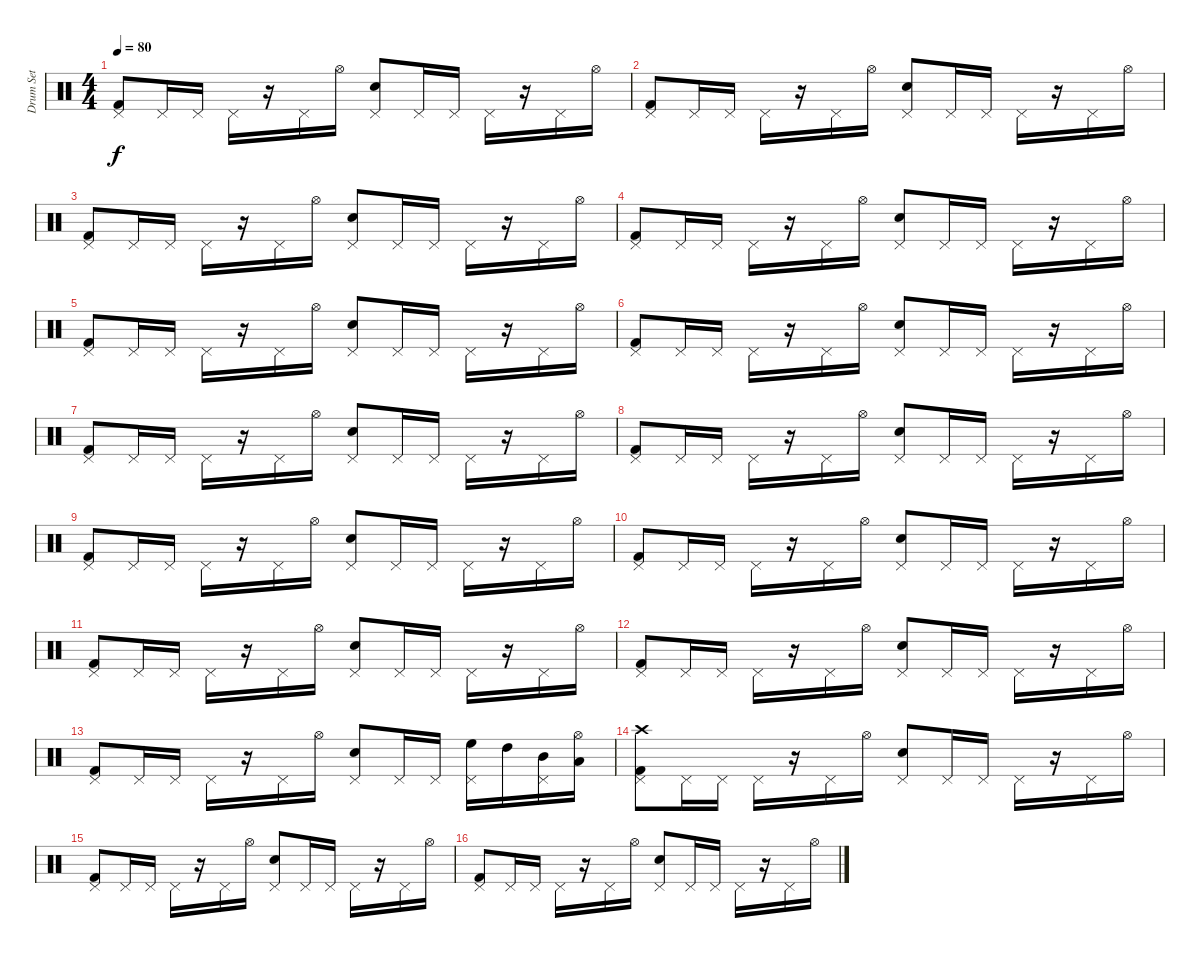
\track ("Drum Set" "Drum Set") {instrument percussion}
\staff {score}
\articulation defaults
\ts (4 4)
\tempo 80
\clef neutral
\ks c
("Kick (hit) 2" "Pedal Hi-Hat (hit)").8{dy f} "Pedal Hi-Hat (hit)".16 "Pedal Hi-Hat (hit)".16 "Pedal Hi-Hat (hit)".16 r.16 "Pedal Hi-Hat (hit)".16 "Hi-Hat (open)".16 ("Electric Snare (hit)" "Pedal Hi-Hat (hit)").8 "Pedal Hi-Hat (hit)".16 "Pedal Hi-Hat (hit)".16 "Pedal Hi-Hat (hit)".16 r.16 "Pedal Hi-Hat (hit)".16 "Hi-Hat (open)".16 |
("Pedal Hi-Hat (hit)" "Kick (hit) 2").8 "Pedal Hi-Hat (hit)".16 "Pedal Hi-Hat (hit)".16 "Pedal Hi-Hat (hit)".16 r.16 "Pedal Hi-Hat (hit)".16 "Hi-Hat (open)".16 ("Pedal Hi-Hat (hit)" "Electric Snare (hit)").8 "Pedal Hi-Hat (hit)".16 "Pedal Hi-Hat (hit)".16 "Pedal Hi-Hat (hit)".16 r.16 "Pedal Hi-Hat (hit)".16 "Hi-Hat (open)".16 |
("Kick (hit) 2" "Pedal Hi-Hat (hit)").8 "Pedal Hi-Hat (hit)".16 "Pedal Hi-Hat (hit)".16 "Pedal Hi-Hat (hit)".16 r.16 "Pedal Hi-Hat (hit)".16 "Hi-Hat (open)".16 ("Electric Snare (hit)" "Pedal Hi-Hat (hit)").8 "Pedal Hi-Hat (hit)".16 "Pedal Hi-Hat (hit)".16 "Pedal Hi-Hat (hit)".16 r.16 "Pedal Hi-Hat (hit)".16 "Hi-Hat (open)".16 |
("Pedal Hi-Hat (hit)" "Kick (hit) 2").8 "Pedal Hi-Hat (hit)".16 "Pedal Hi-Hat (hit)".16 "Pedal Hi-Hat (hit)".16 r.16 "Pedal Hi-Hat (hit)".16 "Hi-Hat (open)".16 ("Pedal Hi-Hat (hit)" "Electric Snare (hit)").8 "Pedal Hi-Hat (hit)".16 "Pedal Hi-Hat (hit)".16 "Pedal Hi-Hat (hit)".16 r.16 "Pedal Hi-Hat (hit)".16 "Hi-Hat (open)".16 |
("Kick (hit) 2" "Pedal Hi-Hat (hit)").8 "Pedal Hi-Hat (hit)".16 "Pedal Hi-Hat (hit)".16 "Pedal Hi-Hat (hit)".16 r.16 "Pedal Hi-Hat (hit)".16 "Hi-Hat (open)".16 ("Electric Snare (hit)" "Pedal Hi-Hat (hit)").8 "Pedal Hi-Hat (hit)".16 "Pedal Hi-Hat (hit)".16 "Pedal Hi-Hat (hit)".16 r.16 "Pedal Hi-Hat (hit)".16 "Hi-Hat (open)".16 |
("Pedal Hi-Hat (hit)" "Kick (hit) 2").8 "Pedal Hi-Hat (hit)".16 "Pedal Hi-Hat (hit)".16 "Pedal Hi-Hat (hit)".16 r.16 "Pedal Hi-Hat (hit)".16 "Hi-Hat (open)".16 ("Pedal Hi-Hat (hit)" "Electric Snare (hit)").8 "Pedal Hi-Hat (hit)".16 "Pedal Hi-Hat (hit)".16 "Pedal Hi-Hat (hit)".16 r.16 "Pedal Hi-Hat (hit)".16 "Hi-Hat (open)".16 |
("Kick (hit) 2" "Pedal Hi-Hat (hit)").8 "Pedal Hi-Hat (hit)".16 "Pedal Hi-Hat (hit)".16 "Pedal Hi-Hat (hit)".16 r.16 "Pedal Hi-Hat (hit)".16 "Hi-Hat (open)".16 ("Electric Snare (hit)" "Pedal Hi-Hat (hit)").8 "Pedal Hi-Hat (hit)".16 "Pedal Hi-Hat (hit)".16 "Pedal Hi-Hat (hit)".16 r.16 "Pedal Hi-Hat (hit)".16 "Hi-Hat (open)".16 |
("Pedal Hi-Hat (hit)" "Kick (hit) 2").8 "Pedal Hi-Hat (hit)".16 "Pedal Hi-Hat (hit)".16 "Pedal Hi-Hat (hit)".16 r.16 "Pedal Hi-Hat (hit)".16 "Hi-Hat (open)".16 ("Pedal Hi-Hat (hit)" "Electric Snare (hit)").8 "Pedal Hi-Hat (hit)".16 "Pedal Hi-Hat (hit)".16 "Pedal Hi-Hat (hit)".16 r.16 "Pedal Hi-Hat (hit)".16 "Hi-Hat (open)".16 |
("Kick (hit) 2" "Pedal Hi-Hat (hit)").8 "Pedal Hi-Hat (hit)".16 "Pedal Hi-Hat (hit)".16 "Pedal Hi-Hat (hit)".16 r.16 "Pedal Hi-Hat (hit)".16 "Hi-Hat (open)".16 ("Electric Snare (hit)" "Pedal Hi-Hat (hit)").8 "Pedal Hi-Hat (hit)".16 "Pedal Hi-Hat (hit)".16 "Pedal Hi-Hat (hit)".16 r.16 "Pedal Hi-Hat (hit)".16 "Hi-Hat (open)".16 |
("Pedal Hi-Hat (hit)" "Kick (hit) 2").8 "Pedal Hi-Hat (hit)".16 "Pedal Hi-Hat (hit)".16 "Pedal Hi-Hat (hit)".16 r.16 "Pedal Hi-Hat (hit)".16 "Hi-Hat (open)".16 ("Pedal Hi-Hat (hit)" "Electric Snare (hit)").8 "Pedal Hi-Hat (hit)".16 "Pedal Hi-Hat (hit)".16 "Pedal Hi-Hat (hit)".16 r.16 "Pedal Hi-Hat (hit)".16 "Hi-Hat (open)".16 |
("Pedal Hi-Hat (hit)" "Kick (hit) 2").8 "Pedal Hi-Hat (hit)".16 "Pedal Hi-Hat (hit)".16 "Pedal Hi-Hat (hit)".16 r.16 "Pedal Hi-Hat (hit)".16 "Hi-Hat (open)".16 ("Pedal Hi-Hat (hit)" "Electric Snare (hit)").8 "Pedal Hi-Hat (hit)".16 "Pedal Hi-Hat (hit)".16 "Pedal Hi-Hat (hit)".16 r.16 "Pedal Hi-Hat (hit)".16 "Hi-Hat (open)".16 |
("Kick (hit) 2" "Pedal Hi-Hat (hit)").8 "Pedal Hi-Hat (hit)".16 "Pedal Hi-Hat (hit)".16 "Pedal Hi-Hat (hit)".16 r.16 "Pedal Hi-Hat (hit)".16 "Hi-Hat (open)".16 ("Electric Snare (hit)" "Pedal Hi-Hat (hit)").8 "Pedal Hi-Hat (hit)".16 "Pedal Hi-Hat (hit)".16 "Pedal Hi-Hat (hit)".16 r.16 "Pedal Hi-Hat (hit)".16 "Hi-Hat (open)".16 |
("Pedal Hi-Hat (hit)" "Kick (hit) 2").8 "Pedal Hi-Hat (hit)".16 "Pedal Hi-Hat (hit)".16 "Pedal Hi-Hat (hit)".16 r.16 "Pedal Hi-Hat (hit)".16 "Hi-Hat (open)".16 ("Pedal Hi-Hat (hit)" "Electric Snare (hit)").8 "Pedal Hi-Hat (hit)".16 "Pedal Hi-Hat (hit)".16 ("Pedal Hi-Hat (hit)" "High Floor Tom (hit)").16 "High Tom (hit)".16 ("Pedal Hi-Hat (hit)" "Mid Tom (hit)").16 ("Hi-Hat (open)" "Low Tom (hit)").16 |
("Pedal Hi-Hat (hit)" "Kick (hit) 2" "Crash high (hit)").8 "Pedal Hi-Hat (hit)".16 "Pedal Hi-Hat (hit)".16 "Pedal Hi-Hat (hit)".16 r.16 "Pedal Hi-Hat (hit)".16 "Hi-Hat (open)".16 ("Pedal Hi-Hat (hit)" "Electric Snare (hit)").8 "Pedal Hi-Hat (hit)".16 "Pedal Hi-Hat (hit)".16 "Pedal Hi-Hat (hit)".16 r.16 "Pedal Hi-Hat (hit)".16 "Hi-Hat (open)".16 |
("Pedal Hi-Hat (hit)" "Kick (hit) 2").8 "Pedal Hi-Hat (hit)".16 "Pedal Hi-Hat (hit)".16 "Pedal Hi-Hat (hit)".16 r.16 "Pedal Hi-Hat (hit)".16 "Hi-Hat (open)".16 ("Pedal Hi-Hat (hit)" "Electric Snare (hit)").8 "Pedal Hi-Hat (hit)".16 "Pedal Hi-Hat (hit)".16 "Pedal Hi-Hat (hit)".16 r.16 "Pedal Hi-Hat (hit)".16 "Hi-Hat (open)".16 |
("Kick (hit) 2" "Pedal Hi-Hat (hit)").8 "Pedal Hi-Hat (hit)".16 "Pedal Hi-Hat (hit)".16 "Pedal Hi-Hat (hit)".16 r.16 "Pedal Hi-Hat (hit)".16 "Hi-Hat (open)".16 ("Electric Snare (hit)" "Pedal Hi-Hat (hit)").8 "Pedal Hi-Hat (hit)".16 "Pedal Hi-Hat (hit)".16 "Pedal Hi-Hat (hit)".16 r.16 "Pedal Hi-Hat (hit)".16 "Hi-Hat (open)".16
